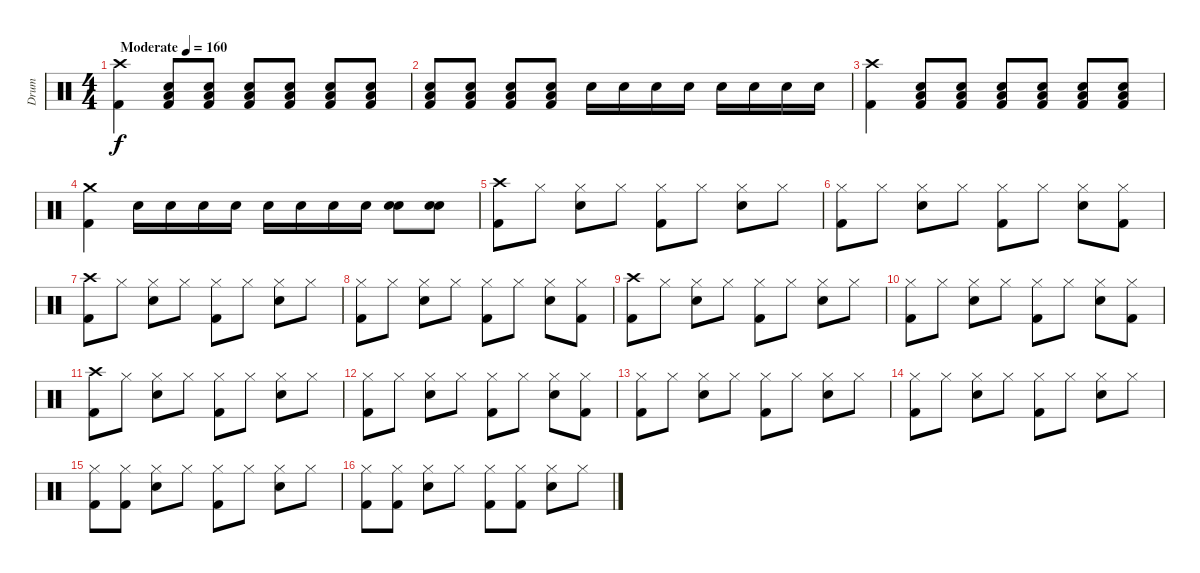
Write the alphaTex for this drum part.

\track ("Drum" "Drum") {instrument percussion}
\staff {score}
\articulation defaults
\ts (4 4)
\tempo (160 "Moderate")
\clef neutral
\ks c
("Crash high (hit)" "Kick (hit) 2").4{dy f} ("Snare (hit) 2" "Low Floor Tom (hit)" "Kick (hit) 2").8 ("Snare (hit) 2" "Low Floor Tom (hit)" "Kick (hit) 2").8 ("Snare (hit) 2" "Low Floor Tom (hit)" "Kick (hit) 2").8 ("Snare (hit) 2" "Low Floor Tom (hit)" "Kick (hit) 2").8 ("Snare (hit) 2" "Low Floor Tom (hit)" "Kick (hit) 2").8 ("Snare (hit) 2" "Low Floor Tom (hit)" "Kick (hit) 2").8 |
("Snare (hit) 2" "Low Floor Tom (hit)" "Kick (hit) 2").8 ("Snare (hit) 2" "Low Floor Tom (hit)" "Kick (hit) 2").8 ("Snare (hit) 2" "Low Floor Tom (hit)" "Kick (hit) 2").8 ("Snare (hit) 2" "Low Floor Tom (hit)" "Kick (hit) 2").8 "Snare (hit) 2".16 "Snare (hit) 2".16 "Snare (hit) 2".16 "Snare (hit) 2".16 "Snare (hit) 2".16 "Snare (hit) 2".16 "Snare (hit) 2".16 "Snare (hit) 2".16 |
("Crash high (hit)" "Kick (hit) 2").4 ("Snare (hit) 2" "Low Floor Tom (hit)" "Kick (hit) 2").8 ("Snare (hit) 2" "Low Floor Tom (hit)" "Kick (hit) 2").8 ("Snare (hit) 2" "Low Floor Tom (hit)" "Kick (hit) 2").8 ("Snare (hit) 2" "Low Floor Tom (hit)" "Kick (hit) 2").8 ("Snare (hit) 2" "Low Floor Tom (hit)" "Kick (hit) 2").8 ("Snare (hit) 2" "Low Floor Tom (hit)" "Kick (hit) 2").8 |
("Crash medium (hit)" "Kick (hit) 2").4 "Snare (hit) 2".16 "Snare (hit) 2".16 "Snare (hit) 2".16 "Snare (hit) 2".16 "Snare (hit) 2".16 "Snare (hit) 2".16 "Snare (hit) 2".16 "Snare (hit) 2".16 ("Snare (hit) 2" "Snare (hit) 2").8 ("Snare (hit) 2" "Snare (hit) 2").8 |
("Crash high (hit)" "Kick (hit) 2").8 "Hi-Hat (closed)".8 ("Hi-Hat (closed)" "Snare (hit) 2").8 "Hi-Hat (closed)".8 ("Hi-Hat (closed)" "Kick (hit) 2").8 "Hi-Hat (closed)".8 ("Hi-Hat (closed)" "Snare (hit) 2").8 "Hi-Hat (closed)".8 |
("Hi-Hat (closed)" "Kick (hit) 2").8 "Hi-Hat (closed)".8 ("Hi-Hat (closed)" "Snare (hit) 2").8 "Hi-Hat (closed)".8 ("Hi-Hat (closed)" "Kick (hit) 2").8 "Hi-Hat (closed)".8 ("Hi-Hat (closed)" "Snare (hit) 2").8 ("Hi-Hat (closed)" "Kick (hit) 2").8 |
("Crash high (hit)" "Kick (hit) 2").8 "Hi-Hat (closed)".8 ("Hi-Hat (closed)" "Snare (hit) 2").8 "Hi-Hat (closed)".8 ("Hi-Hat (closed)" "Kick (hit) 2").8 "Hi-Hat (closed)".8 ("Hi-Hat (closed)" "Snare (hit) 2").8 "Hi-Hat (closed)".8 |
("Hi-Hat (closed)" "Kick (hit) 2").8 "Hi-Hat (closed)".8 ("Hi-Hat (closed)" "Snare (hit) 2").8 "Hi-Hat (closed)".8 ("Hi-Hat (closed)" "Kick (hit) 2").8 "Hi-Hat (closed)".8 ("Hi-Hat (closed)" "Snare (hit) 2").8 ("Hi-Hat (closed)" "Kick (hit) 2").8 |
("Crash high (hit)" "Kick (hit) 2").8 "Hi-Hat (closed)".8 ("Hi-Hat (closed)" "Snare (hit) 2").8 "Hi-Hat (closed)".8 ("Hi-Hat (closed)" "Kick (hit) 2").8 "Hi-Hat (closed)".8 ("Hi-Hat (closed)" "Snare (hit) 2").8 "Hi-Hat (closed)".8 |
("Hi-Hat (closed)" "Kick (hit) 2").8 "Hi-Hat (closed)".8 ("Hi-Hat (closed)" "Snare (hit) 2").8 "Hi-Hat (closed)".8 ("Hi-Hat (closed)" "Kick (hit) 2").8 "Hi-Hat (closed)".8 ("Hi-Hat (closed)" "Snare (hit) 2").8 ("Hi-Hat (closed)" "Kick (hit) 2").8 |
("Crash high (hit)" "Kick (hit) 2").8 "Hi-Hat (closed)".8 ("Hi-Hat (closed)" "Snare (hit) 2").8 "Hi-Hat (closed)".8 ("Hi-Hat (closed)" "Kick (hit) 2").8 "Hi-Hat (closed)".8 ("Hi-Hat (closed)" "Snare (hit) 2").8 "Hi-Hat (closed)".8 |
("Hi-Hat (closed)" "Kick (hit) 2").8 "Hi-Hat (closed)".8 ("Hi-Hat (closed)" "Snare (hit) 2").8 "Hi-Hat (closed)".8 ("Hi-Hat (closed)" "Kick (hit) 2").8 "Hi-Hat (closed)".8 ("Hi-Hat (closed)" "Snare (hit) 2").8 ("Hi-Hat (closed)" "Kick (hit) 2").8 |
("Hi-Hat (closed)" "Kick (hit) 2").8 "Hi-Hat (closed)".8 ("Hi-Hat (closed)" "Snare (hit) 2").8 "Hi-Hat (closed)".8 ("Hi-Hat (closed)" "Kick (hit) 2").8 "Hi-Hat (closed)".8 ("Hi-Hat (closed)" "Snare (hit) 2").8 "Hi-Hat (closed)".8 |
("Hi-Hat (closed)" "Kick (hit) 2").8 "Hi-Hat (closed)".8 ("Hi-Hat (closed)" "Snare (hit) 2").8 "Hi-Hat (closed)".8 ("Hi-Hat (closed)" "Kick (hit) 2").8 "Hi-Hat (closed)".8 ("Hi-Hat (closed)" "Snare (hit) 2").8 "Hi-Hat (closed)".8 |
("Hi-Hat (closed)" "Kick (hit) 2").8 ("Hi-Hat (closed)" "Kick (hit) 2").8 ("Hi-Hat (closed)" "Snare (hit) 2").8 "Hi-Hat (closed)".8 ("Hi-Hat (closed)" "Kick (hit) 2").8 "Hi-Hat (closed)".8 ("Hi-Hat (closed)" "Snare (hit) 2").8 "Hi-Hat (closed)".8 |
("Hi-Hat (closed)" "Kick (hit) 2").8 ("Hi-Hat (closed)" "Kick (hit) 2").8 ("Hi-Hat (closed)" "Snare (hit) 2").8 "Hi-Hat (closed)".8 ("Hi-Hat (closed)" "Kick (hit) 2").8 ("Hi-Hat (closed)" "Kick (hit) 2").8 ("Hi-Hat (closed)" "Snare (hit) 2").8 "Hi-Hat (closed)".8
